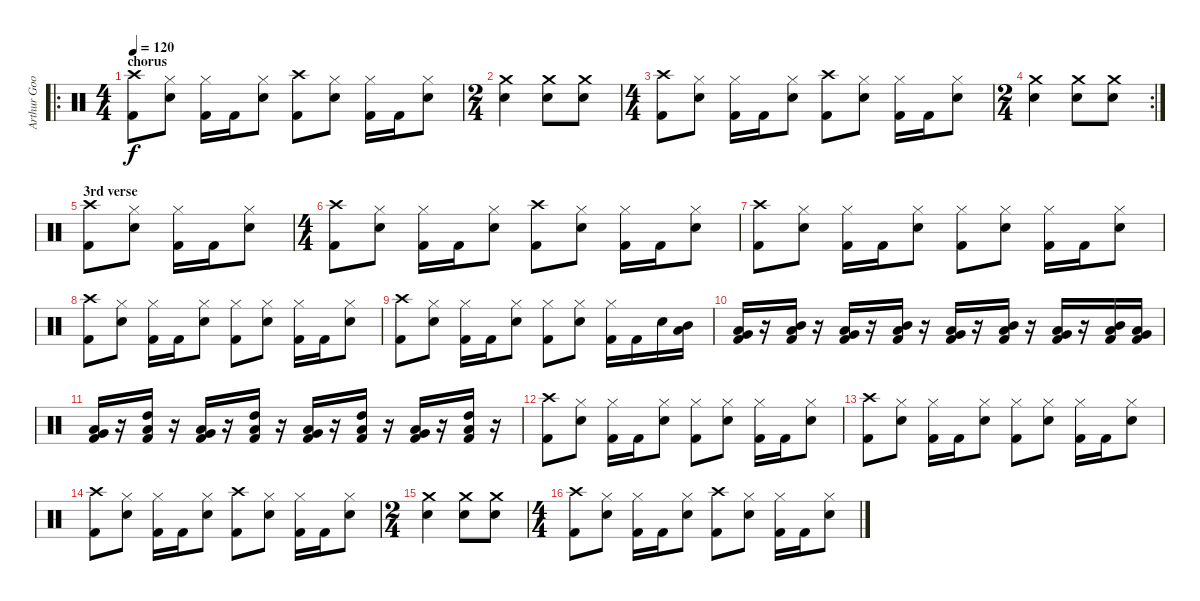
\track ("Arthur Googy" "Arthur Goo") {instrument percussion}
\staff {score}
\articulation defaults
\ro
\ts (4 4)
\section ("" "chorus")
\tempo 120
\clef neutral
\ks c
("Crash high (hit)" "Kick (hit) 2").8{dy f} ("Hi-Hat (closed)" "Snare (hit) 2").8 ("Hi-Hat (closed)" "Kick (hit) 2").16 "Kick (hit) 2".16 ("Hi-Hat (closed)" "Snare (hit) 2").8 ("Crash high (hit)" "Kick (hit) 2").8 ("Hi-Hat (closed)" "Snare (hit) 2").8 ("Hi-Hat (closed)" "Kick (hit) 2").16 "Kick (hit) 2".16 ("Hi-Hat (closed)" "Snare (hit) 2").8 |
\ts (2 4)
("Crash medium (hit)" "Snare (hit) 2").4 ("Crash medium (hit)" "Snare (hit) 2").8 ("Crash medium (hit)" "Snare (hit) 2").8 |
\ts (4 4)
("Crash high (hit)" "Kick (hit) 2").8 ("Hi-Hat (closed)" "Snare (hit) 2").8 ("Hi-Hat (closed)" "Kick (hit) 2").16 "Kick (hit) 2".16 ("Hi-Hat (closed)" "Snare (hit) 2").8 ("Crash high (hit)" "Kick (hit) 2").8 ("Hi-Hat (closed)" "Snare (hit) 2").8 ("Hi-Hat (closed)" "Kick (hit) 2").16 "Kick (hit) 2".16 ("Hi-Hat (closed)" "Snare (hit) 2").8 |
\rc 2
\ts (2 4)
("Crash medium (hit)" "Snare (hit) 2").4 ("Crash medium (hit)" "Snare (hit) 2").8 ("Crash medium (hit)" "Snare (hit) 2").8 |
\section ("" "3rd verse")
("Crash high (hit)" "Kick (hit) 2").8 ("Hi-Hat (closed)" "Snare (hit) 2").8 ("Hi-Hat (closed)" "Kick (hit) 2").16 "Kick (hit) 2".16 ("Hi-Hat (closed)" "Snare (hit) 2").8 |
\ts (4 4)
("Crash high (hit)" "Kick (hit) 2").8 ("Hi-Hat (closed)" "Snare (hit) 2").8 ("Hi-Hat (closed)" "Kick (hit) 2").16 "Kick (hit) 2".16 ("Hi-Hat (closed)" "Snare (hit) 2").8 ("Crash high (hit)" "Kick (hit) 2").8 ("Hi-Hat (closed)" "Snare (hit) 2").8 ("Hi-Hat (closed)" "Kick (hit) 2").16 "Kick (hit) 2".16 ("Hi-Hat (closed)" "Snare (hit) 2").8 |
("Crash high (hit)" "Kick (hit) 2").8 ("Hi-Hat (closed)" "Snare (hit) 2").8 ("Hi-Hat (closed)" "Kick (hit) 2").16 "Kick (hit) 2".16 ("Hi-Hat (closed)" "Snare (hit) 2").8 ("Hi-Hat (closed)" "Kick (hit) 2").8 ("Hi-Hat (closed)" "Snare (hit) 2").8 ("Hi-Hat (closed)" "Kick (hit) 2").16 "Kick (hit) 2".16 ("Hi-Hat (closed)" "Snare (hit) 2").8 |
("Crash high (hit)" "Kick (hit) 2").8 ("Hi-Hat (closed)" "Snare (hit) 2").8 ("Hi-Hat (closed)" "Kick (hit) 2").16 "Kick (hit) 2".16 ("Hi-Hat (closed)" "Snare (hit) 2").8 ("Hi-Hat (closed)" "Kick (hit) 2").8 ("Hi-Hat (closed)" "Snare (hit) 2").8 ("Hi-Hat (closed)" "Kick (hit) 2").16 "Kick (hit) 2".16 ("Hi-Hat (closed)" "Snare (hit) 2").8 |
("Crash high (hit)" "Kick (hit) 2").8 ("Hi-Hat (closed)" "Snare (hit) 2").8 ("Hi-Hat (closed)" "Kick (hit) 2").16 "Kick (hit) 2".16 ("Hi-Hat (closed)" "Snare (hit) 2").8 ("Hi-Hat (closed)" "Kick (hit) 2").8 ("Hi-Hat (closed)" "Snare (hit) 2").8 ("Hi-Hat (closed)" "Kick (hit) 2").16 "Kick (hit) 2".16 "Snare (hit) 2".16 ("Mid Tom (hit)" "Low Tom (hit)").16 |
("Low Tom (hit)" "Very Low Tom (hit)" "Kick (hit) 2").16 r.16 ("Mid Tom (hit)" "Low Tom (hit)" "Kick (hit) 2").16 r.16 ("Low Tom (hit)" "Very Low Tom (hit)" "Kick (hit) 2").16 r.16 ("Mid Tom (hit)" "Low Tom (hit)" "Kick (hit) 2").16 r.16 ("Low Tom (hit)" "Very Low Tom (hit)" "Kick (hit) 2").16 r.16 ("Mid Tom (hit)" "Low Tom (hit)" "Kick (hit) 2").16 r.16 ("Low Tom (hit)" "Very Low Tom (hit)" "Kick (hit) 2").16 r.16 ("Mid Tom (hit)" "Low Tom (hit)" "Kick (hit) 2").16 ("Low Tom (hit)" "Very Low Tom (hit)" "Kick (hit) 2").16 |
("Low Tom (hit)" "Very Low Tom (hit)" "Kick (hit) 2").16 r.16 ("High Tom (hit)" "Low Tom (hit)" "Kick (hit) 2").16 r.16 ("Low Tom (hit)" "Very Low Tom (hit)" "Kick (hit) 2").16 r.16 ("High Tom (hit)" "Low Tom (hit)" "Kick (hit) 2").16 r.16 ("Low Tom (hit)" "Very Low Tom (hit)" "Kick (hit) 2").16 r.16 ("High Tom (hit)" "Low Tom (hit)" "Kick (hit) 2").16 r.16 ("Low Tom (hit)" "Very Low Tom (hit)" "Kick (hit) 2").16 r.16 ("High Tom (hit)" "Low Tom (hit)" "Kick (hit) 2").16 r.16 |
("Crash high (hit)" "Kick (hit) 2").8 ("Hi-Hat (closed)" "Snare (hit) 2").8 ("Hi-Hat (closed)" "Kick (hit) 2").16 "Kick (hit) 2".16 ("Hi-Hat (closed)" "Snare (hit) 2").8 ("Hi-Hat (closed)" "Kick (hit) 2").8 ("Hi-Hat (closed)" "Snare (hit) 2").8 ("Hi-Hat (closed)" "Kick (hit) 2").16 "Kick (hit) 2".16 ("Hi-Hat (closed)" "Snare (hit) 2").8 |
("Crash high (hit)" "Kick (hit) 2").8 ("Hi-Hat (closed)" "Snare (hit) 2").8 ("Hi-Hat (closed)" "Kick (hit) 2").16 "Kick (hit) 2".16 ("Hi-Hat (closed)" "Snare (hit) 2").8 ("Hi-Hat (closed)" "Kick (hit) 2").8 ("Hi-Hat (closed)" "Snare (hit) 2").8 ("Hi-Hat (closed)" "Kick (hit) 2").16 "Kick (hit) 2".16 ("Hi-Hat (closed)" "Snare (hit) 2").8 |
("Crash high (hit)" "Kick (hit) 2").8 ("Hi-Hat (closed)" "Snare (hit) 2").8 ("Hi-Hat (closed)" "Kick (hit) 2").16 "Kick (hit) 2".16 ("Hi-Hat (closed)" "Snare (hit) 2").8 ("Crash high (hit)" "Kick (hit) 2").8 ("Hi-Hat (closed)" "Snare (hit) 2").8 ("Hi-Hat (closed)" "Kick (hit) 2").16 "Kick (hit) 2".16 ("Hi-Hat (closed)" "Snare (hit) 2").8 |
\ts (2 4)
("Crash medium (hit)" "Snare (hit) 2").4 ("Crash medium (hit)" "Snare (hit) 2").8 ("Crash medium (hit)" "Snare (hit) 2").8 |
\ts (4 4)
("Crash high (hit)" "Kick (hit) 2").8 ("Hi-Hat (closed)" "Snare (hit) 2").8 ("Hi-Hat (closed)" "Kick (hit) 2").16 "Kick (hit) 2".16 ("Hi-Hat (closed)" "Snare (hit) 2").8 ("Crash high (hit)" "Kick (hit) 2").8 ("Hi-Hat (closed)" "Snare (hit) 2").8 ("Hi-Hat (closed)" "Kick (hit) 2").16 "Kick (hit) 2".16 ("Hi-Hat (closed)" "Snare (hit) 2").8
